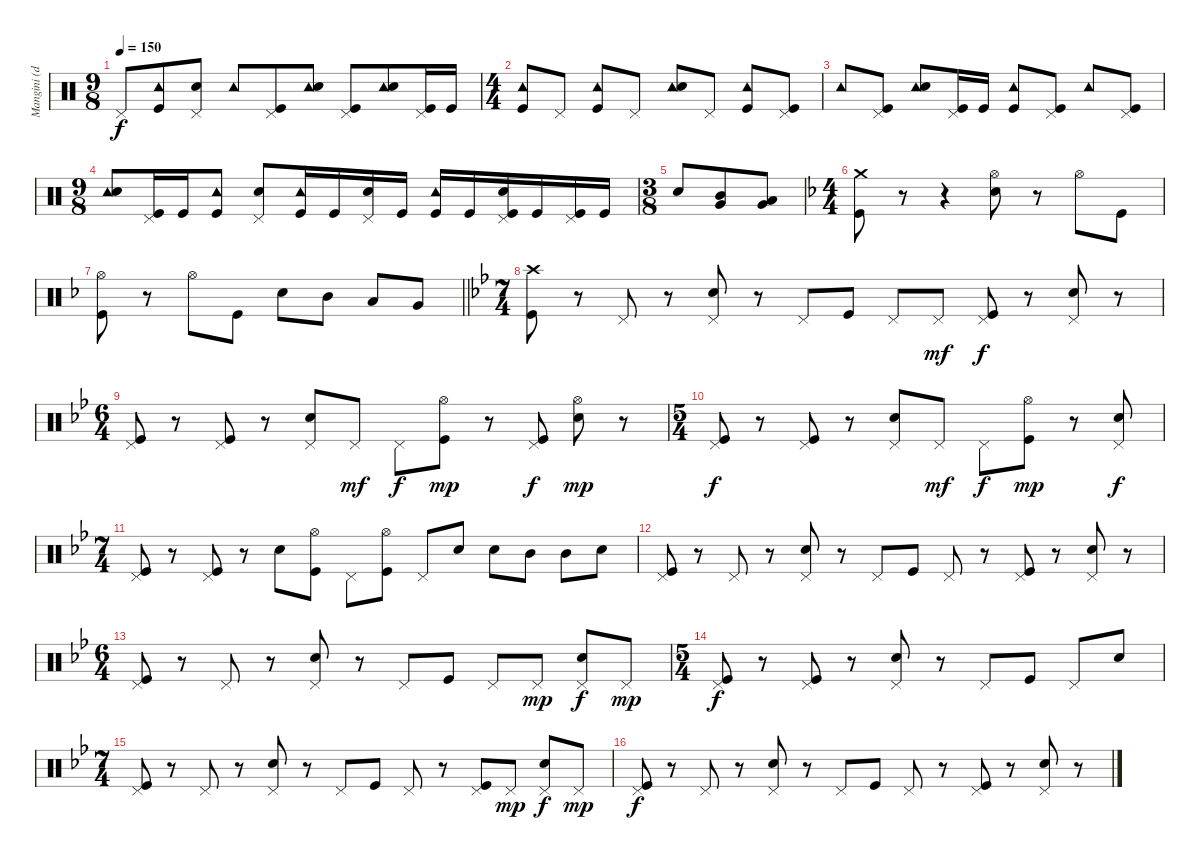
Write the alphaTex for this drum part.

\track ("Mangini (drums)" "Mangini (d") {instrument percussion}
\staff {score}
\articulation defaults
\ts (9 8)
\tempo 150
\clef neutral
\ks aminor "Pedal Hi-Hat (hit)".8{dy f}
("Tambourine (hit)" "Kick (hit)").8 ("Pedal Hi-Hat (hit)" "Snare (hit) 2").8 "Tambourine (hit)".8 ("Pedal Hi-Hat (hit)" "Kick (hit)").8 ("Tambourine (hit)" "Snare (hit) 2").8 ("Pedal Hi-Hat (hit)" "Kick (hit)").8 ("Tambourine (hit)" "Snare (hit) 2").8 ("Pedal Hi-Hat (hit)" "Kick (hit)").16 "Kick (hit)".16 |
\ts (4 4)
("Tambourine (hit)" "Kick (hit)").8 "Pedal Hi-Hat (hit)".8 ("Tambourine (hit)" "Kick (hit)").8 "Pedal Hi-Hat (hit)".8 ("Tambourine (hit)" "Snare (hit) 2").8 "Pedal Hi-Hat (hit)".8 ("Tambourine (hit)" "Kick (hit)").8 ("Pedal Hi-Hat (hit)" "Kick (hit)").8 |
"Tambourine (hit)".8 ("Pedal Hi-Hat (hit)" "Kick (hit)").8 ("Tambourine (hit)" "Snare (hit) 2").8 ("Pedal Hi-Hat (hit)" "Kick (hit)").16 "Kick (hit)".16 ("Tambourine (hit)" "Kick (hit)").8 ("Pedal Hi-Hat (hit)" "Kick (hit)").8 "Tambourine (hit)".8 ("Pedal Hi-Hat (hit)" "Kick (hit)").8 |
\ts (9 8)
("Tambourine (hit)" "Snare (hit) 2").8 ("Pedal Hi-Hat (hit)" "Kick (hit)").16 "Kick (hit)".16 ("Tambourine (hit)" "Kick (hit)").8 ("Pedal Hi-Hat (hit)" "Snare (hit) 2").8 ("Tambourine (hit)" "Kick (hit)").16 "Kick (hit)".16 ("Pedal Hi-Hat (hit)" "Snare (hit) 2").16 "Kick (hit)".16 ("Tambourine (hit)" "Kick (hit)").16 "Kick (hit)".16 ("Pedal Hi-Hat (hit)" "Snare (hit) 2" "Kick (hit)").16 "Kick (hit)".16 ("Pedal Hi-Hat (hit)" "Kick (hit)").16 "Kick (hit)".16 |
\ts (3 8)
"Snare (hit) 2".8 ("Very Low Tom (hit)" "Mid Tom (hit)").8 ("Very Low Tom (hit)" "Low Tom (hit)").8 |
\ts (4 4)
\ks dminor
("Crash medium (hit)" "Kick (hit)").8 r.8 r.4 ("Hi-Hat (open)" "Snare (hit) 2").8 r.8 "Hi-Hat (open)".8 "Kick (hit)".8 |
\barLineRight lightlight
("Hi-Hat (open)" "Kick (hit)").8 r.8 "Hi-Hat (open)".8 "Kick (hit)".8 "Snare (hit) 2".8 "Mid Tom (hit)".8 "Low Tom (hit)".8 "Very Low Tom (hit)".8 |
\ts (7 4)
\ks gminor
("Crash high (hit)" "Kick (hit)").8 r.8 "Pedal Hi-Hat (hit)".8 r.8 ("Pedal Hi-Hat (hit)" "Snare (hit) 2").8 r.8 "Pedal Hi-Hat (hit)".8 "Kick (hit)".8 "Pedal Hi-Hat (hit)".8 "Pedal Hi-Hat (hit)".8{dy mf} ("Pedal Hi-Hat (hit)" "Kick (hit)").8{dy f} r.8 ("Pedal Hi-Hat (hit)" "Snare (hit) 2").8 r.8 |
\ts (6 4)
("Pedal Hi-Hat (hit)" "Kick (hit)").8 r.8 ("Pedal Hi-Hat (hit)" "Kick (hit)").8 r.8 ("Pedal Hi-Hat (hit)" "Snare (hit) 2").8 "Pedal Hi-Hat (hit)".8{dy mf} "Pedal Hi-Hat (hit)".8{dy f} ("Hi-Hat (open)" "Kick (hit)").8{dy mp} r.8 ("Pedal Hi-Hat (hit)" "Kick (hit)").8{dy f} ("Hi-Hat (open)" "Snare (hit) 2").8{dy mp} r.8 |
\ts (5 4)
("Pedal Hi-Hat (hit)" "Kick (hit)").8{dy f} r.8 ("Pedal Hi-Hat (hit)" "Kick (hit)").8 r.8 ("Pedal Hi-Hat (hit)" "Snare (hit) 2").8 "Pedal Hi-Hat (hit)".8{dy mf} "Pedal Hi-Hat (hit)".8{dy f} ("Hi-Hat (open)" "Kick (hit)").8{dy mp} r.8 ("Pedal Hi-Hat (hit)" "Snare (hit) 2").8{dy f} |
\ts (7 4)
("Pedal Hi-Hat (hit)" "Kick (hit)").8 r.8 ("Pedal Hi-Hat (hit)" "Kick (hit)").8 r.8 "Snare (hit) 2".8 ("Hi-Hat (open)" "Kick (hit)").8 "Pedal Hi-Hat (hit)".8 ("Hi-Hat (open)" "Kick (hit)").8 "Pedal Hi-Hat (hit)".8 "Snare (hit) 2".8 "Snare (hit) 2".8 "Mid Tom (hit)".8 "Mid Tom (hit)".8 "Snare (hit) 2".8 |
("Pedal Hi-Hat (hit)" "Kick (hit)").8 r.8 "Pedal Hi-Hat (hit)".8 r.8 ("Pedal Hi-Hat (hit)" "Snare (hit) 2").8 r.8 "Pedal Hi-Hat (hit)".8 "Kick (hit)".8 "Pedal Hi-Hat (hit)".8 r.8 ("Pedal Hi-Hat (hit)" "Kick (hit)").8 r.8 ("Pedal Hi-Hat (hit)" "Snare (hit) 2").8 r.8 |
\ts (6 4)
("Pedal Hi-Hat (hit)" "Kick (hit)").8 r.8 "Pedal Hi-Hat (hit)".8 r.8 ("Pedal Hi-Hat (hit)" "Snare (hit) 2").8 r.8 "Pedal Hi-Hat (hit)".8 "Kick (hit)".8 "Pedal Hi-Hat (hit)".8 "Pedal Hi-Hat (hit)".8{dy mp} ("Pedal Hi-Hat (hit)" "Snare (hit) 2").8{dy f} "Pedal Hi-Hat (hit)".8{dy mp} |
\ts (5 4)
("Pedal Hi-Hat (hit)" "Kick (hit)").8{dy f} r.8 ("Pedal Hi-Hat (hit)" "Kick (hit)").8 r.8 ("Pedal Hi-Hat (hit)" "Snare (hit) 2").8 r.8 "Pedal Hi-Hat (hit)".8 "Kick (hit)".8 "Pedal Hi-Hat (hit)".8 "Snare (hit) 2".8 |
\ts (7 4)
("Pedal Hi-Hat (hit)" "Kick (hit)").8 r.8 "Pedal Hi-Hat (hit)".8 r.8 ("Pedal Hi-Hat (hit)" "Snare (hit) 2").8 r.8 "Pedal Hi-Hat (hit)".8 "Kick (hit)".8 "Pedal Hi-Hat (hit)".8 r.8 ("Pedal Hi-Hat (hit)" "Kick (hit)").8 "Pedal Hi-Hat (hit)".8{dy mp} ("Pedal Hi-Hat (hit)" "Snare (hit) 2").8{dy f} "Pedal Hi-Hat (hit)".8{dy mp} |
("Pedal Hi-Hat (hit)" "Kick (hit)").8{dy f} r.8 "Pedal Hi-Hat (hit)".8 r.8 ("Pedal Hi-Hat (hit)" "Snare (hit) 2").8 r.8 "Pedal Hi-Hat (hit)".8 "Kick (hit)".8 "Pedal Hi-Hat (hit)".8 r.8 ("Pedal Hi-Hat (hit)" "Kick (hit)").8 r.8 ("Pedal Hi-Hat (hit)" "Snare (hit) 2").8 r.8
